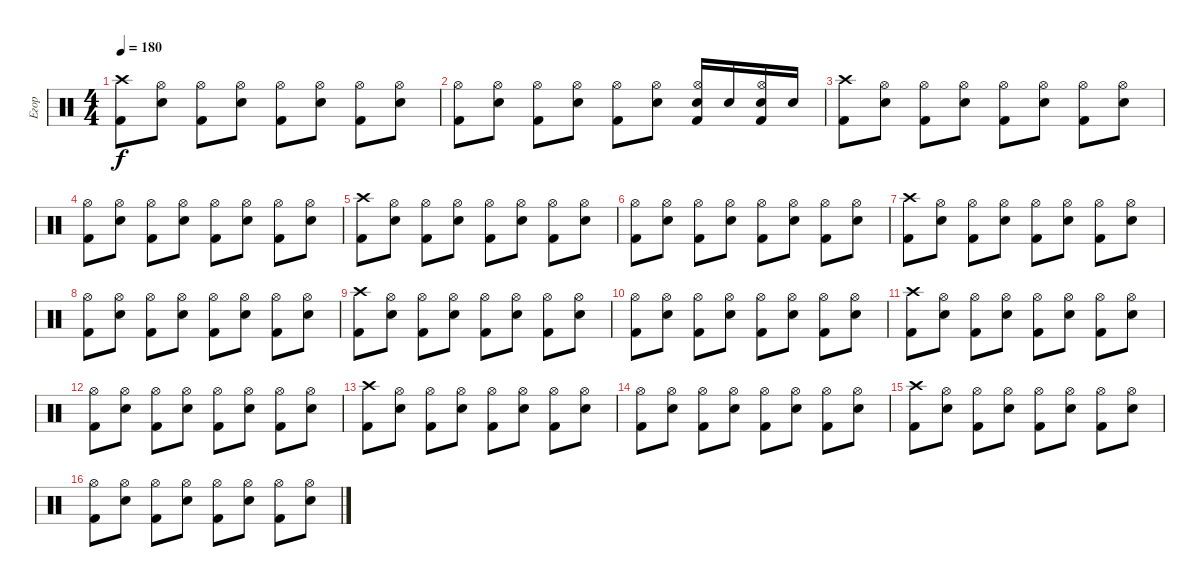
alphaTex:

\track ("Егор" "Егор") {instrument percussion}
\staff {score}
\articulation defaults
\ts (4 4)
\tempo 180
\clef neutral
\ks c
("Crash high (hit)" "Kick (hit) 2").8{dy f} ("Hi-Hat (open)" "Electric Snare (hit)").8 ("Hi-Hat (open)" "Kick (hit) 2").8 ("Hi-Hat (open)" "Electric Snare (hit)").8 ("Hi-Hat (open)" "Kick (hit) 2").8 ("Hi-Hat (open)" "Electric Snare (hit)").8 ("Hi-Hat (open)" "Kick (hit) 2").8 ("Hi-Hat (open)" "Electric Snare (hit)").8 |
("Hi-Hat (open)" "Kick (hit) 2").8 ("Hi-Hat (open)" "Electric Snare (hit)").8 ("Hi-Hat (open)" "Kick (hit) 2").8 ("Hi-Hat (open)" "Electric Snare (hit)").8 ("Hi-Hat (open)" "Kick (hit) 2").8 ("Hi-Hat (open)" "Electric Snare (hit)").8 ("Hi-Hat (open)" "Electric Snare (hit)" "Kick (hit) 2").16 "Electric Snare (hit)".16 ("Hi-Hat (open)" "Electric Snare (hit)" "Kick (hit) 2").16 "Electric Snare (hit)".16 |
("Crash high (hit)" "Kick (hit) 2").8 ("Hi-Hat (open)" "Electric Snare (hit)").8 ("Hi-Hat (open)" "Kick (hit) 2").8 ("Hi-Hat (open)" "Electric Snare (hit)").8 ("Hi-Hat (open)" "Kick (hit) 2").8 ("Hi-Hat (open)" "Electric Snare (hit)").8 ("Hi-Hat (open)" "Kick (hit) 2").8 ("Hi-Hat (open)" "Electric Snare (hit)").8 |
("Hi-Hat (open)" "Kick (hit) 2").8 ("Hi-Hat (open)" "Electric Snare (hit)").8 ("Hi-Hat (open)" "Kick (hit) 2").8 ("Hi-Hat (open)" "Electric Snare (hit)").8 ("Hi-Hat (open)" "Kick (hit) 2").8 ("Hi-Hat (open)" "Electric Snare (hit)").8 ("Hi-Hat (open)" "Kick (hit) 2").8 ("Hi-Hat (open)" "Electric Snare (hit)").8 |
("Crash high (hit)" "Kick (hit) 2").8 ("Hi-Hat (open)" "Electric Snare (hit)").8 ("Hi-Hat (open)" "Kick (hit) 2").8 ("Hi-Hat (open)" "Electric Snare (hit)").8 ("Hi-Hat (open)" "Kick (hit) 2").8 ("Hi-Hat (open)" "Electric Snare (hit)").8 ("Hi-Hat (open)" "Kick (hit) 2").8 ("Hi-Hat (open)" "Electric Snare (hit)").8 |
("Hi-Hat (open)" "Kick (hit) 2").8 ("Hi-Hat (open)" "Electric Snare (hit)").8 ("Hi-Hat (open)" "Kick (hit) 2").8 ("Hi-Hat (open)" "Electric Snare (hit)").8 ("Hi-Hat (open)" "Kick (hit) 2").8 ("Hi-Hat (open)" "Electric Snare (hit)").8 ("Hi-Hat (open)" "Kick (hit) 2").8 ("Hi-Hat (open)" "Electric Snare (hit)").8 |
("Crash high (hit)" "Kick (hit) 2").8 ("Hi-Hat (open)" "Electric Snare (hit)").8 ("Hi-Hat (open)" "Kick (hit) 2").8 ("Hi-Hat (open)" "Electric Snare (hit)").8 ("Hi-Hat (open)" "Kick (hit) 2").8 ("Hi-Hat (open)" "Electric Snare (hit)").8 ("Hi-Hat (open)" "Kick (hit) 2").8 ("Hi-Hat (open)" "Electric Snare (hit)").8 |
("Hi-Hat (open)" "Kick (hit) 2").8 ("Hi-Hat (open)" "Electric Snare (hit)").8 ("Hi-Hat (open)" "Kick (hit) 2").8 ("Hi-Hat (open)" "Electric Snare (hit)").8 ("Hi-Hat (open)" "Kick (hit) 2").8 ("Hi-Hat (open)" "Electric Snare (hit)").8 ("Hi-Hat (open)" "Kick (hit) 2").8 ("Hi-Hat (open)" "Electric Snare (hit)").8 |
("Crash high (hit)" "Kick (hit) 2").8 ("Hi-Hat (open)" "Electric Snare (hit)").8 ("Hi-Hat (open)" "Kick (hit) 2").8 ("Hi-Hat (open)" "Electric Snare (hit)").8 ("Hi-Hat (open)" "Kick (hit) 2").8 ("Hi-Hat (open)" "Electric Snare (hit)").8 ("Hi-Hat (open)" "Kick (hit) 2").8 ("Hi-Hat (open)" "Electric Snare (hit)").8 |
("Hi-Hat (open)" "Kick (hit) 2").8 ("Hi-Hat (open)" "Electric Snare (hit)").8 ("Hi-Hat (open)" "Kick (hit) 2").8 ("Hi-Hat (open)" "Electric Snare (hit)").8 ("Hi-Hat (open)" "Kick (hit) 2").8 ("Hi-Hat (open)" "Electric Snare (hit)").8 ("Hi-Hat (open)" "Kick (hit) 2").8 ("Hi-Hat (open)" "Electric Snare (hit)").8 |
("Crash high (hit)" "Kick (hit) 2").8 ("Hi-Hat (open)" "Electric Snare (hit)").8 ("Hi-Hat (open)" "Kick (hit) 2").8 ("Hi-Hat (open)" "Electric Snare (hit)").8 ("Hi-Hat (open)" "Kick (hit) 2").8 ("Hi-Hat (open)" "Electric Snare (hit)").8 ("Hi-Hat (open)" "Kick (hit) 2").8 ("Hi-Hat (open)" "Electric Snare (hit)").8 |
("Hi-Hat (open)" "Kick (hit) 2").8 ("Hi-Hat (open)" "Electric Snare (hit)").8 ("Hi-Hat (open)" "Kick (hit) 2").8 ("Hi-Hat (open)" "Electric Snare (hit)").8 ("Hi-Hat (open)" "Kick (hit) 2").8 ("Hi-Hat (open)" "Electric Snare (hit)").8 ("Hi-Hat (open)" "Kick (hit) 2").8 ("Hi-Hat (open)" "Electric Snare (hit)").8 |
("Crash high (hit)" "Kick (hit) 2").8 ("Hi-Hat (open)" "Electric Snare (hit)").8 ("Hi-Hat (open)" "Kick (hit) 2").8 ("Hi-Hat (open)" "Electric Snare (hit)").8 ("Hi-Hat (open)" "Kick (hit) 2").8 ("Hi-Hat (open)" "Electric Snare (hit)").8 ("Hi-Hat (open)" "Kick (hit) 2").8 ("Hi-Hat (open)" "Electric Snare (hit)").8 |
("Hi-Hat (open)" "Kick (hit) 2").8 ("Hi-Hat (open)" "Electric Snare (hit)").8 ("Hi-Hat (open)" "Kick (hit) 2").8 ("Hi-Hat (open)" "Electric Snare (hit)").8 ("Hi-Hat (open)" "Kick (hit) 2").8 ("Hi-Hat (open)" "Electric Snare (hit)").8 ("Hi-Hat (open)" "Kick (hit) 2").8 ("Hi-Hat (open)" "Electric Snare (hit)").8 |
("Crash high (hit)" "Kick (hit) 2").8 ("Hi-Hat (open)" "Electric Snare (hit)").8 ("Hi-Hat (open)" "Kick (hit) 2").8 ("Hi-Hat (open)" "Electric Snare (hit)").8 ("Hi-Hat (open)" "Kick (hit) 2").8 ("Hi-Hat (open)" "Electric Snare (hit)").8 ("Hi-Hat (open)" "Kick (hit) 2").8 ("Hi-Hat (open)" "Electric Snare (hit)").8 |
("Hi-Hat (open)" "Kick (hit) 2").8 ("Hi-Hat (open)" "Electric Snare (hit)").8 ("Hi-Hat (open)" "Kick (hit) 2").8 ("Hi-Hat (open)" "Electric Snare (hit)").8 ("Hi-Hat (open)" "Kick (hit) 2").8 ("Hi-Hat (open)" "Electric Snare (hit)").8 ("Hi-Hat (open)" "Kick (hit) 2").8 ("Hi-Hat (open)" "Electric Snare (hit)").8
